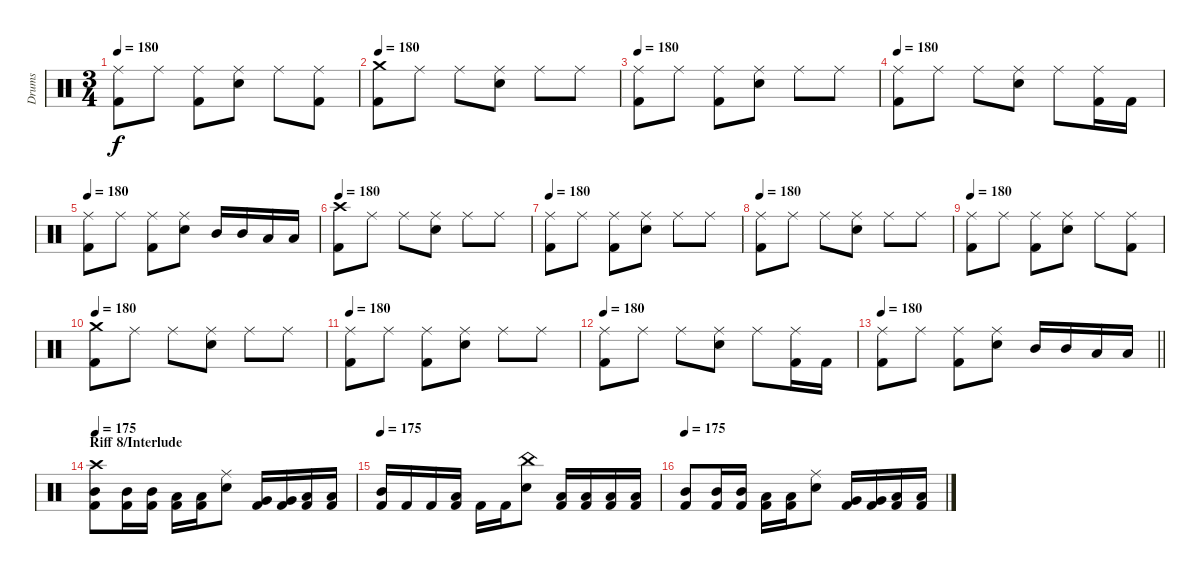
\track ("Drums" "Drums") {instrument percussion}
\staff {score}
\articulation defaults
\ts (3 4)
\tempo 180
\clef neutral
\ks c
("Ride (middle)" "Kick (hit) 2").8{dy f} "Ride (middle)".8 ("Ride (middle)" "Kick (hit) 2").8 ("Ride (middle)" "Electric Snare (hit)").8 "Ride (middle)".8 ("Ride (middle)" "Kick (hit) 2").8 |
\tempo 180
("Crash medium (hit)" "Kick (hit) 2").8 "Ride (middle)".8 "Ride (middle)".8 ("Ride (middle)" "Electric Snare (hit)").8 "Ride (middle)".8 "Ride (middle)".8 |
\tempo 180
("Ride (middle)" "Kick (hit) 2").8 "Ride (middle)".8 ("Ride (middle)" "Kick (hit) 2").8 ("Ride (middle)" "Electric Snare (hit)").8 "Ride (middle)".8 "Ride (middle)".8 |
\tempo 180
("Ride (middle)" "Kick (hit) 2").8 "Ride (middle)".8 "Ride (middle)".8 ("Ride (middle)" "Electric Snare (hit)").8 "Ride (middle)".8 ("Ride (middle)" "Kick (hit) 2").16 "Kick (hit) 2".16 |
\tempo 180
("Ride (middle)" "Kick (hit) 2").8 "Ride (middle)".8 ("Ride (middle)" "Kick (hit) 2").8 ("Ride (middle)" "Electric Snare (hit)").8 "Mid Tom (hit)".16 "Mid Tom (hit)".16 "Low Tom (hit)".16 "Low Tom (hit)".16 |
\tempo 180
("Crash high (hit)" "Kick (hit) 2").8 "Ride (middle)".8 "Ride (middle)".8 ("Ride (middle)" "Electric Snare (hit)").8 "Ride (middle)".8 "Ride (middle)".8 |
\tempo 180
("Ride (middle)" "Kick (hit) 2").8 "Ride (middle)".8 ("Ride (middle)" "Kick (hit) 2").8 ("Ride (middle)" "Electric Snare (hit)").8 "Ride (middle)".8 "Ride (middle)".8 |
\tempo 180
("Ride (middle)" "Kick (hit) 2").8 "Ride (middle)".8 "Ride (middle)".8 ("Ride (middle)" "Electric Snare (hit)").8 "Ride (middle)".8 "Ride (middle)".8 |
\tempo 180
("Ride (middle)" "Kick (hit) 2").8 "Ride (middle)".8 ("Ride (middle)" "Kick (hit) 2").8 ("Ride (middle)" "Electric Snare (hit)").8 "Ride (middle)".8 ("Ride (middle)" "Kick (hit) 2").8 |
\tempo 180
("Crash medium (hit)" "Kick (hit) 2").8 "Ride (middle)".8 "Ride (middle)".8 ("Ride (middle)" "Electric Snare (hit)").8 "Ride (middle)".8 "Ride (middle)".8 |
\tempo 180
("Ride (middle)" "Kick (hit) 2").8 "Ride (middle)".8 ("Ride (middle)" "Kick (hit) 2").8 ("Ride (middle)" "Electric Snare (hit)").8 "Ride (middle)".8 "Ride (middle)".8 |
\tempo 180
("Ride (middle)" "Kick (hit) 2").8 "Ride (middle)".8 "Ride (middle)".8 ("Ride (middle)" "Electric Snare (hit)").8 "Ride (middle)".8 ("Ride (middle)" "Kick (hit) 2").16 "Kick (hit) 2".16 |
\tempo 180
\barLineRight lightlight
("Ride (middle)" "Kick (hit) 2").8 "Ride (middle)".8 ("Ride (middle)" "Kick (hit) 2").8 ("Ride (middle)" "Electric Snare (hit)").8 "Mid Tom (hit)".16 "Mid Tom (hit)".16 "Low Tom (hit)".16 "Low Tom (hit)".16 |
\section ("" "Riff 8/Interlude")
\tempo 175
("Crash high (hit)" "Mid Tom (hit)" "Kick (hit) 2").8 ("Mid Tom (hit)" "Kick (hit) 2").16 ("Mid Tom (hit)" "Kick (hit) 2").16 ("Low Tom (hit)" "Kick (hit) 2").16 ("Low Tom (hit)" "Kick (hit) 2").16 ("Ride (middle)" "Electric Snare (hit)").8 ("Very Low Tom (hit)" "Kick (hit) 2").16 ("Very Low Tom (hit)" "Kick (hit) 2").16 ("Low Tom (hit)" "Kick (hit) 2").16 ("Low Tom (hit)" "Kick (hit) 2").16 |
\tempo 175
("Mid Tom (hit)" "Kick (hit) 2").16 "Kick (hit) 2".16 "Kick (hit) 2".16 ("Low Tom (hit)" "Kick (hit) 2").16 "Kick (hit) 2".16 "Kick (hit) 2".16 ("China (hit)" "Electric Snare (hit)").8 ("Low Tom (hit)" "Kick (hit) 2").16 ("Low Tom (hit)" "Kick (hit) 2").16 ("Low Tom (hit)" "Kick (hit) 2").16 ("Low Tom (hit)" "Kick (hit) 2").16 |
\tempo 175
("Mid Tom (hit)" "Kick (hit) 2").8 ("Mid Tom (hit)" "Kick (hit) 2").16 ("Mid Tom (hit)" "Kick (hit) 2").16 ("Low Tom (hit)" "Kick (hit) 2").16 ("Low Tom (hit)" "Kick (hit) 2").16 ("Ride (middle)" "Electric Snare (hit)").8 ("Very Low Tom (hit)" "Kick (hit) 2").16 ("Very Low Tom (hit)" "Kick (hit) 2").16 ("Low Tom (hit)" "Kick (hit) 2").16 ("Low Tom (hit)" "Kick (hit) 2").16
